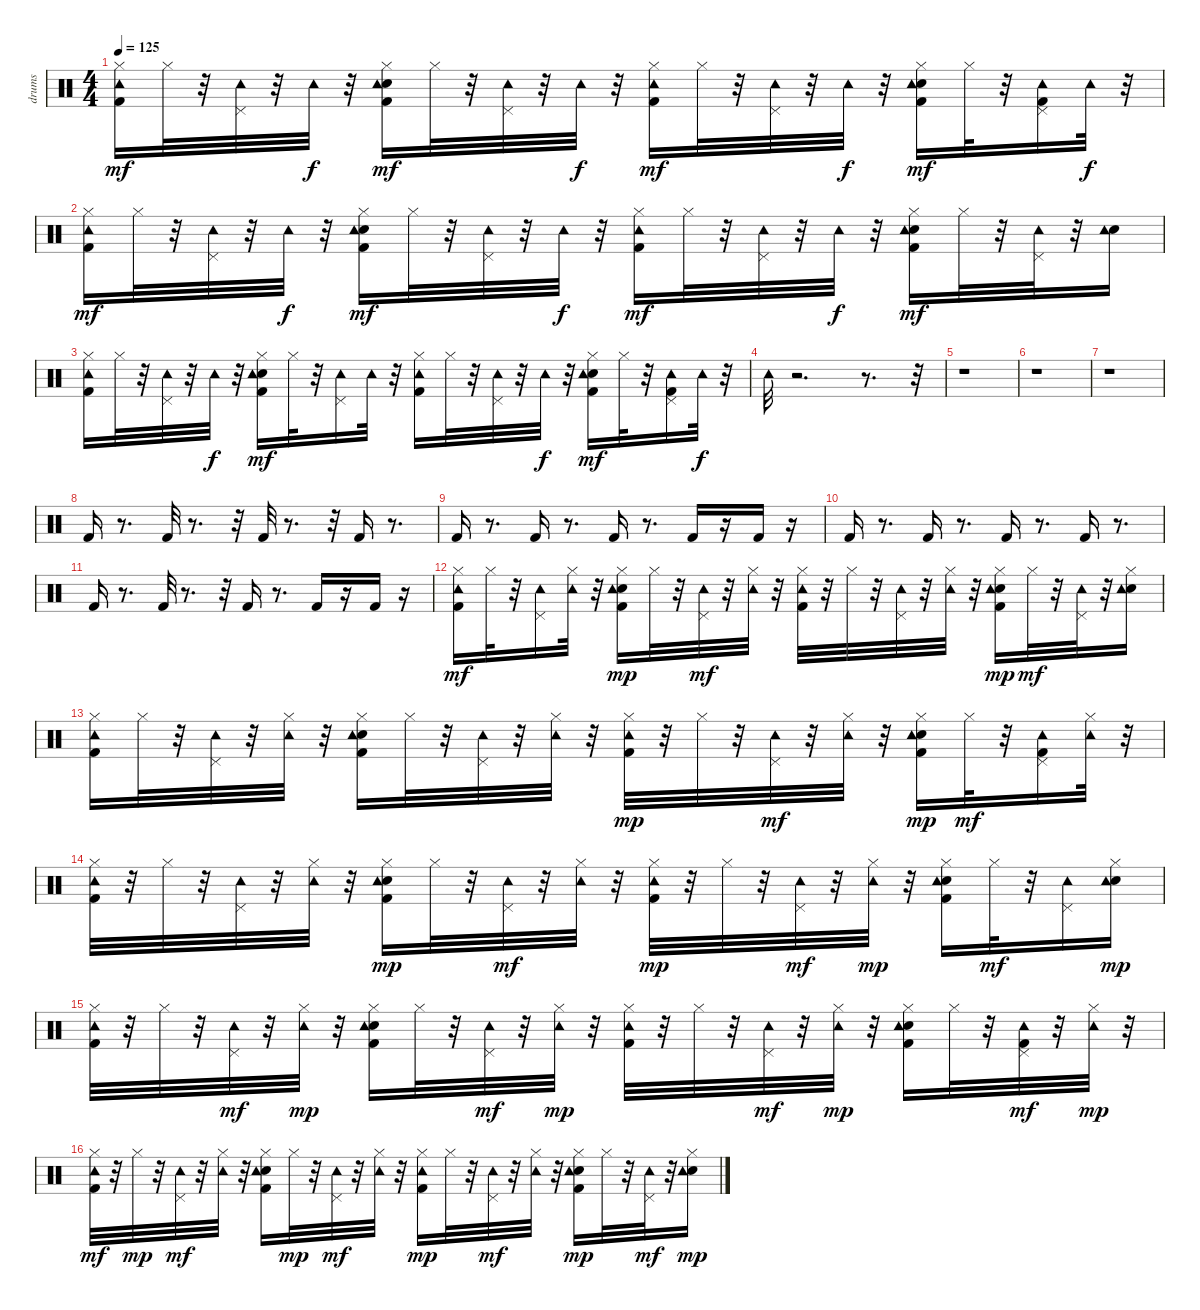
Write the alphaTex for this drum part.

\track ("drums   " "drums   ") {instrument percussion}
\staff {score}
\articulation defaults
\ts (4 4)
\tempo 125
\clef neutral
\ks c
("Kick (hit) 2" "Hi-Hat (closed)" "Tambourine (hit)").16{dy mf} "Hi-Hat (closed)".32 r.32 ("Pedal Hi-Hat (hit)" "Tambourine (hit)").32 r.32 "Tambourine (hit)".32{dy f} r.32 ("Kick (hit) 2" "Snare (hit) 2" "Hi-Hat (closed)" "Tambourine (hit)").16{dy mf} "Hi-Hat (closed)".32 r.32 ("Pedal Hi-Hat (hit)" "Tambourine (hit)").32 r.32 "Tambourine (hit)".32{dy f} r.32 ("Kick (hit) 2" "Hi-Hat (closed)" "Tambourine (hit)").16{dy mf} "Hi-Hat (closed)".32 r.32 ("Pedal Hi-Hat (hit)" "Tambourine (hit)").32 r.32 "Tambourine (hit)".32{dy f} r.32 ("Kick (hit) 2" "Snare (hit) 2" "Hi-Hat (closed)" "Tambourine (hit)").16{dy mf} "Hi-Hat (closed)".32 r.32 ("Kick (hit) 2" "Pedal Hi-Hat (hit)" "Tambourine (hit)").16 "Tambourine (hit)".32{dy f} r.32 |
("Kick (hit) 2" "Hi-Hat (closed)" "Tambourine (hit)").16{dy mf} "Hi-Hat (closed)".32 r.32 ("Pedal Hi-Hat (hit)" "Tambourine (hit)").32 r.32 "Tambourine (hit)".32{dy f} r.32 ("Kick (hit) 2" "Snare (hit) 2" "Hi-Hat (closed)" "Tambourine (hit)").16{dy mf} "Hi-Hat (closed)".32 r.32 ("Pedal Hi-Hat (hit)" "Tambourine (hit)").32 r.32 "Tambourine (hit)".32{dy f} r.32 ("Kick (hit) 2" "Hi-Hat (closed)" "Tambourine (hit)").16{dy mf} "Hi-Hat (closed)".32 r.32 ("Pedal Hi-Hat (hit)" "Tambourine (hit)").32 r.32 "Tambourine (hit)".32{dy f} r.32 ("Kick (hit) 2" "Snare (hit) 2" "Hi-Hat (closed)" "Tambourine (hit)").16{dy mf} "Hi-Hat (closed)".32 r.32 ("Pedal Hi-Hat (hit)" "Tambourine (hit)").32 r.32 ("Snare (hit) 2" "Tambourine (hit)").16 |
("Kick (hit) 2" "Hi-Hat (closed)" "Tambourine (hit)").16 "Hi-Hat (closed)".32 r.32 ("Pedal Hi-Hat (hit)" "Tambourine (hit)").32 r.32 "Tambourine (hit)".32{dy f} r.32 ("Kick (hit) 2" "Snare (hit) 2" "Hi-Hat (closed)" "Tambourine (hit)").16{dy mf} "Hi-Hat (closed)".32 r.32 ("Pedal Hi-Hat (hit)" "Tambourine (hit)").16 "Tambourine (hit)".32 r.32 ("Kick (hit) 2" "Hi-Hat (closed)" "Tambourine (hit)").16 "Hi-Hat (closed)".32 r.32 ("Pedal Hi-Hat (hit)" "Tambourine (hit)").32 r.32 "Tambourine (hit)".32{dy f} r.32 ("Kick (hit) 2" "Snare (hit) 2" "Hi-Hat (closed)" "Tambourine (hit)").16{dy mf} "Hi-Hat (closed)".32 r.32 ("Kick (hit) 2" "Pedal Hi-Hat (hit)" "Tambourine (hit)").16 "Tambourine (hit)".32{dy f} r.32 |
"Tambourine (hit)".32 r.2{d} r.8{d} r.32 |
r.1 |
r.1 |
r.1 |
"Kick (hit) 2".16 r.8{d} "Kick (hit) 2".32 r.8{d} r.32 "Kick (hit) 2".32 r.8{d} r.32 "Kick (hit) 2".16 r.8{d} |
"Kick (hit) 2".16 r.8{d} "Kick (hit) 2".16 r.8{d} "Kick (hit) 2".16 r.8{d} "Kick (hit) 2".16 r.16 "Kick (hit) 2".16 r.16 |
"Kick (hit) 2".16 r.8{d} "Kick (hit) 2".16 r.8{d} "Kick (hit) 2".16 r.8{d} "Kick (hit) 2".16 r.8{d} |
"Kick (hit) 2".16 r.8{d} "Kick (hit) 2".32 r.8{d} r.32 "Kick (hit) 2".16 r.8{d} "Kick (hit) 2".16 r.16 "Kick (hit) 2".16 r.16 |
("Kick (hit) 2" "Hi-Hat (closed)" "Tambourine (hit)").16{dy mf} "Hi-Hat (closed)".32 r.32 ("Pedal Hi-Hat (hit)" "Tambourine (hit)").16 ("Hi-Hat (closed)" "Tambourine (hit)").32 r.32 ("Kick (hit) 2" "Snare (hit) 2" "Hi-Hat (closed)" "Tambourine (hit)").16{dy mp} "Hi-Hat (closed)".32 r.32 ("Pedal Hi-Hat (hit)" "Tambourine (hit)").32{dy mf} r.32 ("Hi-Hat (closed)" "Tambourine (hit)").32 r.32 ("Kick (hit) 2" "Hi-Hat (closed)" "Tambourine (hit)").32 r.32 "Hi-Hat (closed)".32 r.32 ("Pedal Hi-Hat (hit)" "Tambourine (hit)").32 r.32 ("Hi-Hat (closed)" "Tambourine (hit)").32 r.32 ("Kick (hit) 2" "Snare (hit) 2" "Hi-Hat (closed)" "Tambourine (hit)").16{dy mp} "Hi-Hat (closed)".32{dy mf} r.32 ("Pedal Hi-Hat (hit)" "Tambourine (hit)").32 r.32 ("Snare (hit) 2" "Hi-Hat (closed)" "Tambourine (hit)").16 |
("Kick (hit) 2" "Hi-Hat (closed)" "Tambourine (hit)").16 "Hi-Hat (closed)".32 r.32 ("Pedal Hi-Hat (hit)" "Tambourine (hit)").32 r.32 ("Hi-Hat (closed)" "Tambourine (hit)").32 r.32 ("Kick (hit) 2" "Snare (hit) 2" "Hi-Hat (closed)" "Tambourine (hit)").16 "Hi-Hat (closed)".32 r.32 ("Pedal Hi-Hat (hit)" "Tambourine (hit)").32 r.32 ("Hi-Hat (closed)" "Tambourine (hit)").32 r.32 ("Kick (hit) 2" "Hi-Hat (closed)" "Tambourine (hit)").32{dy mp} r.32 "Hi-Hat (closed)".32 r.32 ("Pedal Hi-Hat (hit)" "Tambourine (hit)").32{dy mf} r.32 ("Hi-Hat (closed)" "Tambourine (hit)").32 r.32 ("Kick (hit) 2" "Snare (hit) 2" "Hi-Hat (closed)" "Tambourine (hit)").16{dy mp} "Hi-Hat (closed)".32{dy mf} r.32 ("Kick (hit) 2" "Pedal Hi-Hat (hit)" "Tambourine (hit)").16 ("Hi-Hat (closed)" "Tambourine (hit)").32 r.32 |
("Kick (hit) 2" "Hi-Hat (closed)" "Tambourine (hit)").32 r.32 "Hi-Hat (closed)".32 r.32 ("Pedal Hi-Hat (hit)" "Tambourine (hit)").32 r.32 ("Hi-Hat (closed)" "Tambourine (hit)").32 r.32 ("Kick (hit) 2" "Snare (hit) 2" "Hi-Hat (closed)" "Tambourine (hit)").16{dy mp} "Hi-Hat (closed)".32 r.32 ("Pedal Hi-Hat (hit)" "Tambourine (hit)").32{dy mf} r.32 ("Hi-Hat (closed)" "Tambourine (hit)").32 r.32 ("Kick (hit) 2" "Hi-Hat (closed)" "Tambourine (hit)").32{dy mp} r.32 "Hi-Hat (closed)".32 r.32 ("Pedal Hi-Hat (hit)" "Tambourine (hit)").32{dy mf} r.32 ("Hi-Hat (closed)" "Tambourine (hit)").32{dy mp} r.32 ("Kick (hit) 2" "Snare (hit) 2" "Hi-Hat (closed)" "Tambourine (hit)").16 "Hi-Hat (closed)".32{dy mf} r.32 ("Pedal Hi-Hat (hit)" "Tambourine (hit)").16 ("Snare (hit) 2" "Hi-Hat (closed)" "Tambourine (hit)").16{dy mp} |
("Kick (hit) 2" "Hi-Hat (closed)" "Tambourine (hit)").32 r.32 "Hi-Hat (closed)".32 r.32 ("Pedal Hi-Hat (hit)" "Tambourine (hit)").32{dy mf} r.32 ("Hi-Hat (closed)" "Tambourine (hit)").32{dy mp} r.32 ("Kick (hit) 2" "Snare (hit) 2" "Hi-Hat (closed)" "Tambourine (hit)").16 "Hi-Hat (closed)".32 r.32 ("Pedal Hi-Hat (hit)" "Tambourine (hit)").32{dy mf} r.32 ("Hi-Hat (closed)" "Tambourine (hit)").32{dy mp} r.32 ("Kick (hit) 2" "Hi-Hat (closed)" "Tambourine (hit)").32 r.32 "Hi-Hat (closed)".32 r.32 ("Pedal Hi-Hat (hit)" "Tambourine (hit)").32{dy mf} r.32 ("Hi-Hat (closed)" "Tambourine (hit)").32{dy mp} r.32 ("Kick (hit) 2" "Snare (hit) 2" "Hi-Hat (closed)" "Tambourine (hit)").16 "Hi-Hat (closed)".32 r.32 ("Kick (hit) 2" "Pedal Hi-Hat (hit)" "Tambourine (hit)").32{dy mf} r.32 ("Hi-Hat (closed)" "Tambourine (hit)").32{dy mp} r.32 |
("Kick (hit) 2" "Hi-Hat (closed)" "Tambourine (hit)").32{dy mf} r.32 "Hi-Hat (closed)".32{dy mp} r.32 ("Pedal Hi-Hat (hit)" "Tambourine (hit)").32{dy mf} r.32 ("Hi-Hat (closed)" "Tambourine (hit)").32 r.32 ("Kick (hit) 2" "Snare (hit) 2" "Hi-Hat (closed)" "Tambourine (hit)").16 "Hi-Hat (closed)".32{dy mp} r.32 ("Pedal Hi-Hat (hit)" "Tambourine (hit)").32{dy mf} r.32 ("Hi-Hat (closed)" "Tambourine (hit)").32 r.32 ("Kick (hit) 2" "Hi-Hat (closed)" "Tambourine (hit)").16{dy mp} "Hi-Hat (closed)".32 r.32 ("Pedal Hi-Hat (hit)" "Tambourine (hit)").32{dy mf} r.32 ("Hi-Hat (closed)" "Tambourine (hit)").32 r.32 ("Kick (hit) 2" "Snare (hit) 2" "Hi-Hat (closed)" "Tambourine (hit)").16{dy mp} "Hi-Hat (closed)".32 r.32 ("Pedal Hi-Hat (hit)" "Tambourine (hit)").32{dy mf} r.32 ("Snare (hit) 2" "Hi-Hat (closed)" "Tambourine (hit)").16{dy mp}
